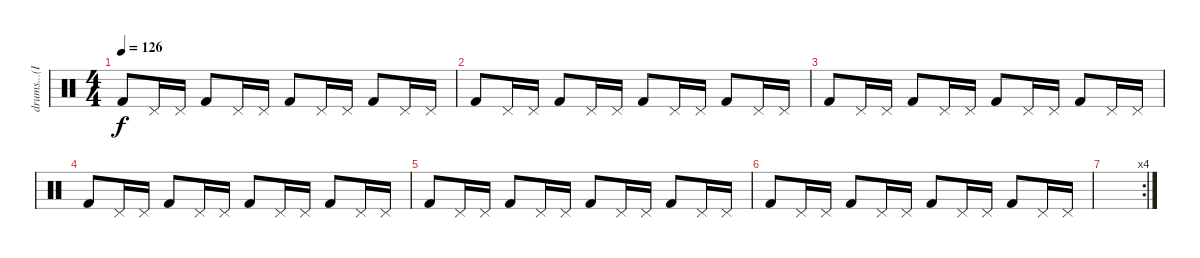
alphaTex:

\track ("drums...(I guess...)" "drums...(I") {instrument percussion}
\staff {score}
\articulation defaults
\ts (4 4)
\tempo 126
\clef neutral
\ks c "Kick (hit) 2".8{dy f} "Pedal Hi-Hat (hit)".16 "Pedal Hi-Hat (hit)".16 "Kick (hit) 2".8 "Pedal Hi-Hat (hit)".16 "Pedal Hi-Hat (hit)".16 "Kick (hit) 2".8 "Pedal Hi-Hat (hit)".16 "Pedal Hi-Hat (hit)".16 "Kick (hit) 2".8 "Pedal Hi-Hat (hit)".16 "Pedal Hi-Hat (hit)".16
|
"Kick (hit) 2".8 "Pedal Hi-Hat (hit)".16 "Pedal Hi-Hat (hit)".16 "Kick (hit) 2".8 "Pedal Hi-Hat (hit)".16 "Pedal Hi-Hat (hit)".16 "Kick (hit) 2".8 "Pedal Hi-Hat (hit)".16 "Pedal Hi-Hat (hit)".16 "Kick (hit) 2".8 "Pedal Hi-Hat (hit)".16 "Pedal Hi-Hat (hit)".16 |
"Kick (hit) 2".8 "Pedal Hi-Hat (hit)".16 "Pedal Hi-Hat (hit)".16 "Kick (hit) 2".8 "Pedal Hi-Hat (hit)".16 "Pedal Hi-Hat (hit)".16 "Kick (hit) 2".8 "Pedal Hi-Hat (hit)".16 "Pedal Hi-Hat (hit)".16 "Kick (hit) 2".8 "Pedal Hi-Hat (hit)".16 "Pedal Hi-Hat (hit)".16 |
"Kick (hit) 2".8 "Pedal Hi-Hat (hit)".16 "Pedal Hi-Hat (hit)".16 "Kick (hit) 2".8 "Pedal Hi-Hat (hit)".16 "Pedal Hi-Hat (hit)".16 "Kick (hit) 2".8 "Pedal Hi-Hat (hit)".16 "Pedal Hi-Hat (hit)".16 "Kick (hit) 2".8 "Pedal Hi-Hat (hit)".16 "Pedal Hi-Hat (hit)".16 |
"Kick (hit) 2".8 "Pedal Hi-Hat (hit)".16 "Pedal Hi-Hat (hit)".16 "Kick (hit) 2".8 "Pedal Hi-Hat (hit)".16 "Pedal Hi-Hat (hit)".16 "Kick (hit) 2".8 "Pedal Hi-Hat (hit)".16 "Pedal Hi-Hat (hit)".16 "Kick (hit) 2".8 "Pedal Hi-Hat (hit)".16 "Pedal Hi-Hat (hit)".16 |
"Kick (hit) 2".8 "Pedal Hi-Hat (hit)".16 "Pedal Hi-Hat (hit)".16 "Kick (hit) 2".8 "Pedal Hi-Hat (hit)".16 "Pedal Hi-Hat (hit)".16 "Kick (hit) 2".8 "Pedal Hi-Hat (hit)".16 "Pedal Hi-Hat (hit)".16 "Kick (hit) 2".8 "Pedal Hi-Hat (hit)".16 "Pedal Hi-Hat (hit)".16 |
\rc 4
